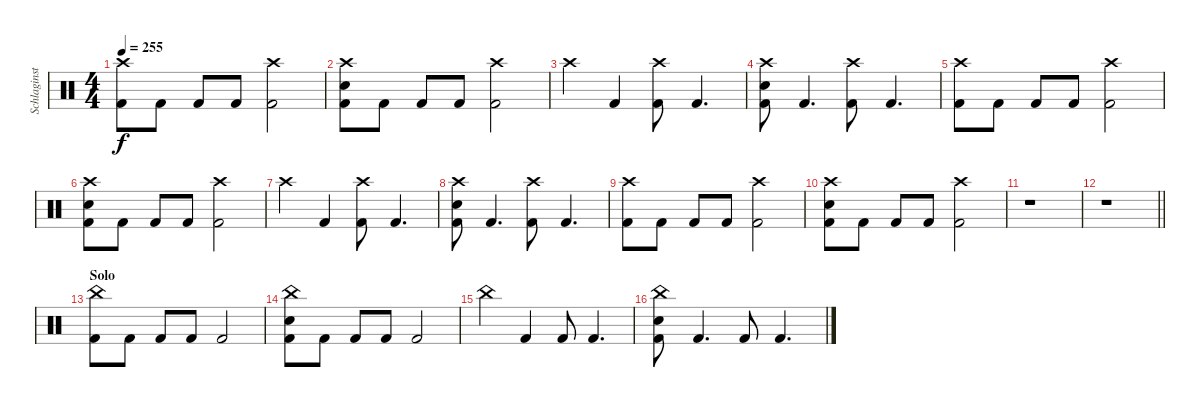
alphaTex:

\track ("Schlaginstrumente - Auswahl" "Schlaginst") {instrument percussion}
\staff {score}
\articulation defaults
\ts (4 4)
\tempo 255
\clef neutral
\ks c
("Crash high (hit)" "Kick (hit) 2").8{dy f} "Kick (hit) 2".8 "Kick (hit) 2".8 "Kick (hit) 2".8 ("Crash high (hit)" "Kick (hit) 2").2 |
("Crash high (hit)" "Electric Snare (hit)" "Kick (hit) 2").8 "Kick (hit) 2".8 "Kick (hit) 2".8 "Kick (hit) 2".8 ("Crash high (hit)" "Kick (hit) 2").2 |
"Crash high (hit)".4 "Kick (hit) 2".4 ("Crash high (hit)" "Kick (hit) 2").8 "Kick (hit) 2".4{d} |
("Crash high (hit)" "Electric Snare (hit)" "Kick (hit) 2").8 "Kick (hit) 2".4{d} ("Crash high (hit)" "Kick (hit) 2").8 "Kick (hit) 2".4{d} |
("Crash high (hit)" "Kick (hit) 2").8 "Kick (hit) 2".8 "Kick (hit) 2".8 "Kick (hit) 2".8 ("Crash high (hit)" "Kick (hit) 2").2 |
("Crash high (hit)" "Electric Snare (hit)" "Kick (hit) 2").8 "Kick (hit) 2".8 "Kick (hit) 2".8 "Kick (hit) 2".8 ("Crash high (hit)" "Kick (hit) 2").2 |
"Crash high (hit)".4 "Kick (hit) 2".4 ("Crash high (hit)" "Kick (hit) 2").8 "Kick (hit) 2".4{d} |
("Crash high (hit)" "Electric Snare (hit)" "Kick (hit) 2").8 "Kick (hit) 2".4{d} ("Crash high (hit)" "Kick (hit) 2").8 "Kick (hit) 2".4{d} |
("Crash high (hit)" "Kick (hit) 2").8 "Kick (hit) 2".8 "Kick (hit) 2".8 "Kick (hit) 2".8 ("Crash high (hit)" "Kick (hit) 2").2 |
("Crash high (hit)" "Electric Snare (hit)" "Kick (hit) 2").8 "Kick (hit) 2".8 "Kick (hit) 2".8 "Kick (hit) 2".8 ("Crash high (hit)" "Kick (hit) 2").2 |
r.1 |
\barLineRight lightlight
r.1 |
\section ("" "Solo")
("China (hit)" "Kick (hit) 2").8 "Kick (hit) 2".8 "Kick (hit) 2".8 "Kick (hit) 2".8 "Kick (hit) 2".2 |
("China (hit)" "Electric Snare (hit)" "Kick (hit) 2").8 "Kick (hit) 2".8 "Kick (hit) 2".8 "Kick (hit) 2".8 "Kick (hit) 2".2 |
"China (hit)".4 "Kick (hit) 2".4 "Kick (hit) 2".8 "Kick (hit) 2".4{d} |
("China (hit)" "Electric Snare (hit)" "Kick (hit) 2").8 "Kick (hit) 2".4{d} "Kick (hit) 2".8 "Kick (hit) 2".4{d}
